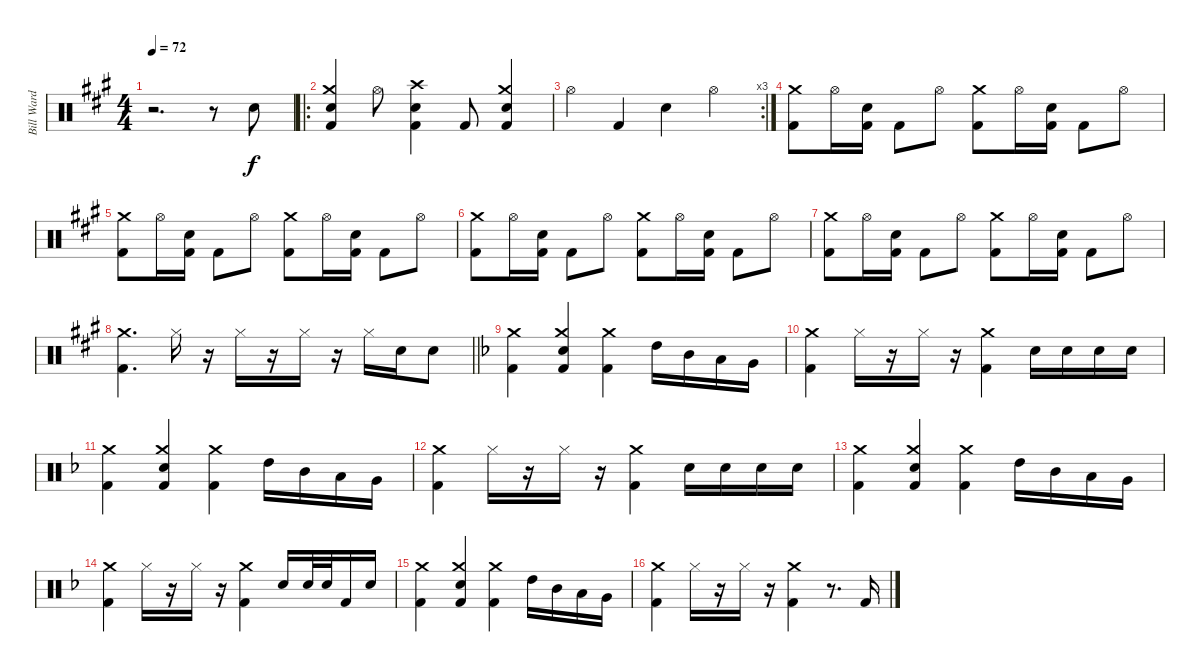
\track ("Bill Ward" "Bill Ward") {instrument percussion}
\staff {score}
\articulation defaults
\ts (4 4)
\tempo 72
\clef neutral
\ks a
r.2{d dy f} r.8 "Snare (hit) 2".8 |
\ro
("Crash medium (hit)" "Snare (hit) 2" "Kick (hit) 2").4 "Hi-Hat (open)".8 ("Crash high (hit)" "Snare (hit) 2" "Kick (hit) 2").4 "Kick (hit) 2".8 ("Crash medium (hit)" "Snare (hit) 2" "Kick (hit) 2").4 |
\rc 3 "Hi-Hat (open)".4 "Kick (hit) 2".4 "Snare (hit) 2".4 "Hi-Hat (open)".4
|
("Crash medium (hit)" "Kick (hit) 2").8 "Hi-Hat (open)".16 ("Snare (hit) 2" "Kick (hit) 2").16 "Kick (hit) 2".8 "Hi-Hat (open)".8 ("Crash medium (hit)" "Kick (hit) 2").8 "Hi-Hat (open)".16 ("Snare (hit) 2" "Kick (hit) 2").16 "Kick (hit) 2".8 "Hi-Hat (open)".8 |
("Crash medium (hit)" "Kick (hit) 2").8 "Hi-Hat (open)".16 ("Snare (hit) 2" "Kick (hit) 2").16 "Kick (hit) 2".8 "Hi-Hat (open)".8 ("Crash medium (hit)" "Kick (hit) 2").8 "Hi-Hat (open)".16 ("Snare (hit) 2" "Kick (hit) 2").16 "Kick (hit) 2".8 "Hi-Hat (open)".8 |
("Crash medium (hit)" "Kick (hit) 2").8 "Hi-Hat (open)".16 ("Snare (hit) 2" "Kick (hit) 2").16 "Kick (hit) 2".8 "Hi-Hat (open)".8 ("Crash medium (hit)" "Kick (hit) 2").8 "Hi-Hat (open)".16 ("Snare (hit) 2" "Kick (hit) 2").16 "Kick (hit) 2".8 "Hi-Hat (open)".8 |
("Crash medium (hit)" "Kick (hit) 2").8 "Hi-Hat (open)".16 ("Snare (hit) 2" "Kick (hit) 2").16 "Kick (hit) 2".8 "Hi-Hat (open)".8 ("Crash medium (hit)" "Kick (hit) 2").8 "Hi-Hat (open)".16 ("Snare (hit) 2" "Kick (hit) 2").16 "Kick (hit) 2".8 "Hi-Hat (open)".8 |
\barLineRight lightlight
("Crash medium (hit)" "Kick (hit) 2").4{d} "Hi-Hat (closed)".16 r.16 "Hi-Hat (closed)".16 r.16 "Hi-Hat (closed)".16 r.16 "Hi-Hat (closed)".16 "Snare (hit) 2".16 "Snare (hit) 2".8 |
\ks f
("Crash medium (hit)" "Kick (hit) 2").4 ("Crash medium (hit)" "Snare (hit) 2" "Kick (hit) 2").4 ("Crash medium (hit)" "Kick (hit) 2").4 "High Tom (hit)".16 "Mid Tom (hit)".16 "Low Tom (hit)".16 "Very Low Tom (hit)".16 |
("Crash medium (hit)" "Kick (hit) 2").4 "Hi-Hat (closed)".16 r.16 "Hi-Hat (closed)".16 r.16 ("Crash medium (hit)" "Kick (hit) 2").4 "Snare (hit) 2".16 "Snare (hit) 2".16 "Snare (hit) 2".16 "Electric Snare (hit)".16 |
("Crash medium (hit)" "Kick (hit) 2").4 ("Crash medium (hit)" "Snare (hit) 2" "Kick (hit) 2").4 ("Crash medium (hit)" "Kick (hit) 2").4 "High Tom (hit)".16 "Mid Tom (hit)".16 "Low Tom (hit)".16 "Very Low Tom (hit)".16 |
("Crash medium (hit)" "Kick (hit) 2").4 "Hi-Hat (closed)".16 r.16 "Hi-Hat (closed)".16 r.16 ("Crash medium (hit)" "Kick (hit) 2").4 "Snare (hit) 2".16 "Snare (hit) 2".16 "Snare (hit) 2".16 "Electric Snare (hit)".16 |
("Crash medium (hit)" "Kick (hit) 2").4 ("Crash medium (hit)" "Snare (hit) 2" "Kick (hit) 2").4 ("Crash medium (hit)" "Kick (hit) 2").4 "High Tom (hit)".16 "Mid Tom (hit)".16 "Low Tom (hit)".16 "Very Low Tom (hit)".16 |
("Crash medium (hit)" "Kick (hit) 2").4 "Hi-Hat (closed)".16 r.16 "Hi-Hat (closed)".16 r.16 ("Crash medium (hit)" "Kick (hit) 2").4 "Snare (hit) 2".16 "Snare (hit) 2".32 "Snare (hit) 2".32 "Kick (hit) 2".16 "Electric Snare (hit)".16 |
("Crash medium (hit)" "Kick (hit) 2").4 ("Crash medium (hit)" "Snare (hit) 2" "Kick (hit) 2").4 ("Crash medium (hit)" "Kick (hit) 2").4 "High Tom (hit)".16 "Mid Tom (hit)".16 "Low Tom (hit)".16 "Very Low Tom (hit)".16 |
("Crash medium (hit)" "Kick (hit) 2").4 "Hi-Hat (closed)".16 r.16 "Hi-Hat (closed)".16 r.16 ("Crash medium (hit)" "Kick (hit) 2").4 r.8{d} "Kick (hit) 2".16
